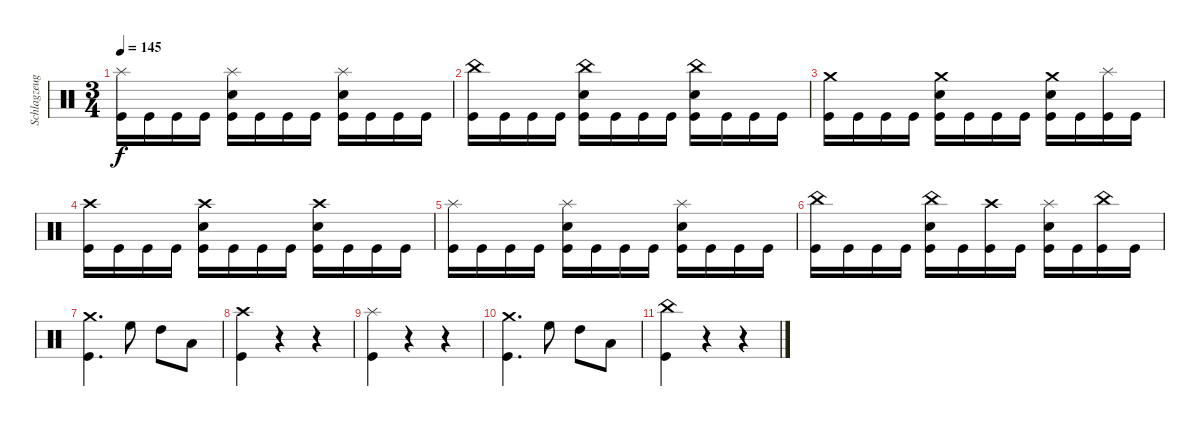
\track ("Schlagzeug" "Schlagzeug") {instrument percussion}
\staff {score}
\articulation defaults
\ts (3 4)
\tempo 145
\clef neutral
\ks c
("Splash (hit)" "Kick (hit)").16{dy f} "Kick (hit)".16 "Kick (hit)".16 "Kick (hit)".16 ("Splash (hit)" "Snare (hit) 2" "Kick (hit)").16 "Kick (hit)".16 "Kick (hit)".16 "Kick (hit)".16 ("Splash (hit)" "Snare (hit) 2" "Kick (hit)").16 "Kick (hit)".16 "Kick (hit)".16 "Kick (hit)".16 |
("China (hit)" "Kick (hit)").16 "Kick (hit)".16 "Kick (hit)".16 "Kick (hit)".16 ("China (hit)" "Snare (hit) 2" "Kick (hit)").16 "Kick (hit)".16 "Kick (hit)".16 "Kick (hit)".16 ("China (hit)" "Snare (hit) 2" "Kick (hit)").16 "Kick (hit)".16 "Kick (hit)".16 "Kick (hit)".16 |
("Crash medium (hit)" "Kick (hit)").16 "Kick (hit)".16 "Kick (hit)".16 "Kick (hit)".16 ("Crash medium (hit)" "Snare (hit) 2" "Kick (hit)").16 "Kick (hit)".16 "Kick (hit)".16 "Kick (hit)".16 ("Crash medium (hit)" "Snare (hit) 2" "Kick (hit)").16 "Kick (hit)".16 ("Splash (hit)" "Kick (hit)").16 "Kick (hit)".16 |
("Crash high (hit)" "Kick (hit)").16 "Kick (hit)".16 "Kick (hit)".16 "Kick (hit)".16 ("Crash high (hit)" "Snare (hit) 2" "Kick (hit)").16 "Kick (hit)".16 "Kick (hit)".16 "Kick (hit)".16 ("Crash high (hit)" "Snare (hit) 2" "Kick (hit)").16 "Kick (hit)".16 "Kick (hit)".16 "Kick (hit)".16 |
("Splash (hit)" "Kick (hit)").16 "Kick (hit)".16 "Kick (hit)".16 "Kick (hit)".16 ("Splash (hit)" "Snare (hit) 2" "Kick (hit)").16 "Kick (hit)".16 "Kick (hit)".16 "Kick (hit)".16 ("Splash (hit)" "Snare (hit) 2" "Kick (hit)").16 "Kick (hit)".16 "Kick (hit)".16 "Kick (hit)".16 |
("China (hit)" "Kick (hit)").16 "Kick (hit)".16 "Kick (hit)".16 "Kick (hit)".16 ("China (hit)" "Snare (hit) 2" "Kick (hit)").16 "Kick (hit)".16 ("Crash high (hit)" "Kick (hit)").16 "Kick (hit)".16 ("Splash (hit)" "Snare (hit) 2" "Kick (hit)").16 "Kick (hit)".16 ("China (hit)" "Kick (hit)").16 "Kick (hit)".16 |
("Crash medium (hit)" "Kick (hit)").4{d} "High Floor Tom (hit)".8 "High Tom (hit)".8 "Low Tom (hit)".8 |
("Crash high (hit)" "Kick (hit)").4 r.4 r.4 |
("Splash (hit)" "Kick (hit)").4 r.4 r.4 |
("Crash medium (hit)" "Kick (hit)").4{d} "High Floor Tom (hit)".8 "High Tom (hit)".8 "Low Tom (hit)".8 |
("China (hit)" "Kick (hit)").4 r.4 r.4
